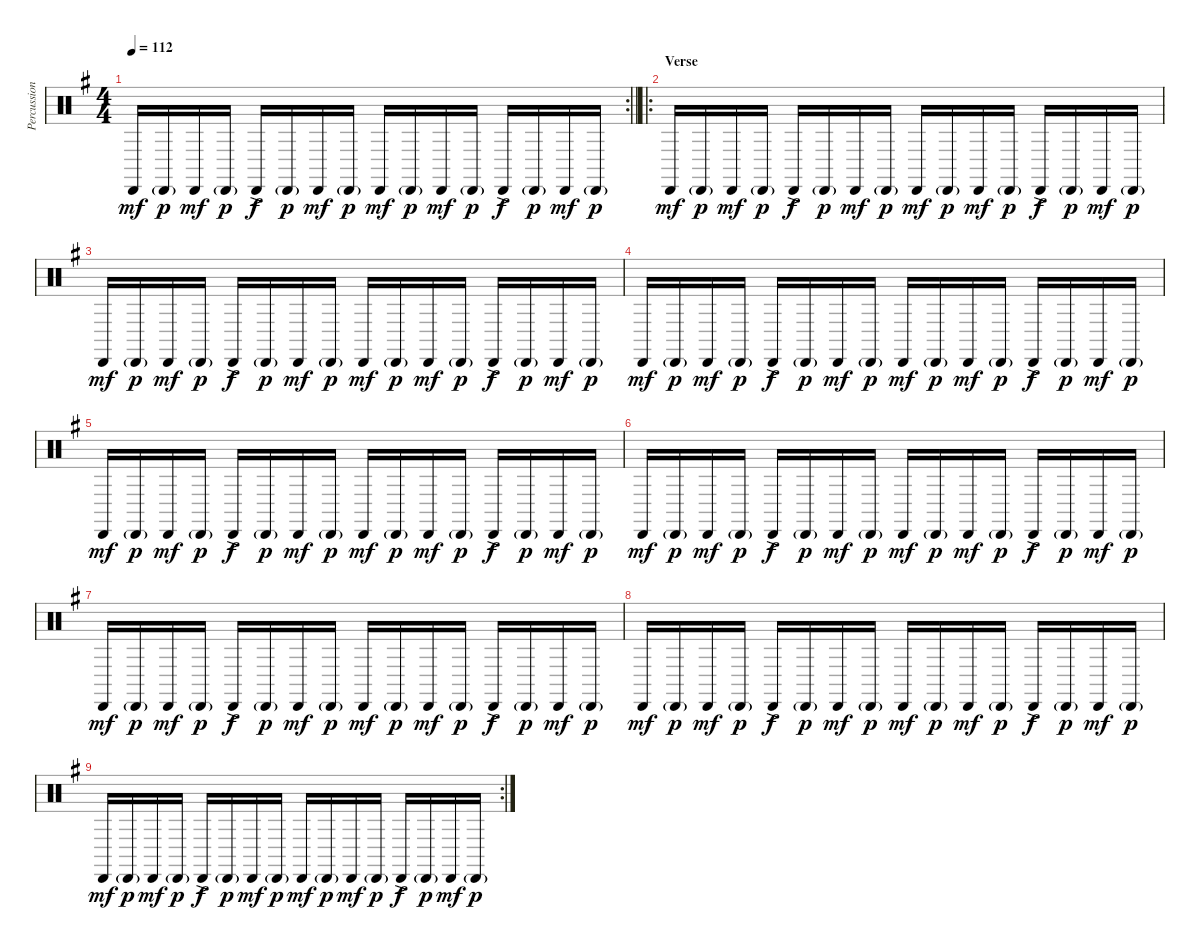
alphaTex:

\track ("Percussion" "Percussion") {instrument percussion}
\staff {score}
\articulation defaults
\rc 2
\ts (4 4)
\tempo 112
\clef neutral
\barLineRight lightlight
\ks g "Cabasa (hit)".16{dy mf} "Cabasa (hit)"{g}.16{dy p} "Cabasa (hit)".16{dy mf} "Cabasa (hit)"{g}.16{dy p} "Cabasa (hit)"{ac}.16{dy f} "Cabasa (hit)"{g}.16{dy p} "Cabasa (hit)".16{dy mf} "Cabasa (hit)"{g}.16{dy p} "Cabasa (hit)".16{dy mf} "Cabasa (hit)"{g}.16{dy p} "Cabasa (hit)".16{dy mf} "Cabasa (hit)"{g}.16{dy p} "Cabasa (hit)"{ac}.16{dy f} "Cabasa (hit)"{g}.16{dy p} "Cabasa (hit)".16{dy mf} "Cabasa (hit)"{g}.16{dy p}
|
\ro
\section ("" "Verse")
"Cabasa (hit)".16{dy mf} "Cabasa (hit)"{g}.16{dy p} "Cabasa (hit)".16{dy mf} "Cabasa (hit)"{g}.16{dy p} "Cabasa (hit)"{ac}.16{dy f} "Cabasa (hit)"{g}.16{dy p} "Cabasa (hit)".16{dy mf} "Cabasa (hit)"{g}.16{dy p} "Cabasa (hit)".16{dy mf} "Cabasa (hit)"{g}.16{dy p} "Cabasa (hit)".16{dy mf} "Cabasa (hit)"{g}.16{dy p} "Cabasa (hit)"{ac}.16{dy f} "Cabasa (hit)"{g}.16{dy p} "Cabasa (hit)".16{dy mf} "Cabasa (hit)"{g}.16{dy p} |
"Cabasa (hit)".16{dy mf} "Cabasa (hit)"{g}.16{dy p} "Cabasa (hit)".16{dy mf} "Cabasa (hit)"{g}.16{dy p} "Cabasa (hit)"{ac}.16{dy f} "Cabasa (hit)"{g}.16{dy p} "Cabasa (hit)".16{dy mf} "Cabasa (hit)"{g}.16{dy p} "Cabasa (hit)".16{dy mf} "Cabasa (hit)"{g}.16{dy p} "Cabasa (hit)".16{dy mf} "Cabasa (hit)"{g}.16{dy p} "Cabasa (hit)"{ac}.16{dy f} "Cabasa (hit)"{g}.16{dy p} "Cabasa (hit)".16{dy mf} "Cabasa (hit)"{g}.16{dy p} |
"Cabasa (hit)".16{dy mf} "Cabasa (hit)"{g}.16{dy p} "Cabasa (hit)".16{dy mf} "Cabasa (hit)"{g}.16{dy p} "Cabasa (hit)"{ac}.16{dy f} "Cabasa (hit)"{g}.16{dy p} "Cabasa (hit)".16{dy mf} "Cabasa (hit)"{g}.16{dy p} "Cabasa (hit)".16{dy mf} "Cabasa (hit)"{g}.16{dy p} "Cabasa (hit)".16{dy mf} "Cabasa (hit)"{g}.16{dy p} "Cabasa (hit)"{ac}.16{dy f} "Cabasa (hit)"{g}.16{dy p} "Cabasa (hit)".16{dy mf} "Cabasa (hit)"{g}.16{dy p} |
"Cabasa (hit)".16{dy mf} "Cabasa (hit)"{g}.16{dy p} "Cabasa (hit)".16{dy mf} "Cabasa (hit)"{g}.16{dy p} "Cabasa (hit)"{ac}.16{dy f} "Cabasa (hit)"{g}.16{dy p} "Cabasa (hit)".16{dy mf} "Cabasa (hit)"{g}.16{dy p} "Cabasa (hit)".16{dy mf} "Cabasa (hit)"{g}.16{dy p} "Cabasa (hit)".16{dy mf} "Cabasa (hit)"{g}.16{dy p} "Cabasa (hit)"{ac}.16{dy f} "Cabasa (hit)"{g}.16{dy p} "Cabasa (hit)".16{dy mf} "Cabasa (hit)"{g}.16{dy p} |
"Cabasa (hit)".16{dy mf} "Cabasa (hit)"{g}.16{dy p} "Cabasa (hit)".16{dy mf} "Cabasa (hit)"{g}.16{dy p} "Cabasa (hit)"{ac}.16{dy f} "Cabasa (hit)"{g}.16{dy p} "Cabasa (hit)".16{dy mf} "Cabasa (hit)"{g}.16{dy p} "Cabasa (hit)".16{dy mf} "Cabasa (hit)"{g}.16{dy p} "Cabasa (hit)".16{dy mf} "Cabasa (hit)"{g}.16{dy p} "Cabasa (hit)"{ac}.16{dy f} "Cabasa (hit)"{g}.16{dy p} "Cabasa (hit)".16{dy mf} "Cabasa (hit)"{g}.16{dy p} |
"Cabasa (hit)".16{dy mf} "Cabasa (hit)"{g}.16{dy p} "Cabasa (hit)".16{dy mf} "Cabasa (hit)"{g}.16{dy p} "Cabasa (hit)"{ac}.16{dy f} "Cabasa (hit)"{g}.16{dy p} "Cabasa (hit)".16{dy mf} "Cabasa (hit)"{g}.16{dy p} "Cabasa (hit)".16{dy mf} "Cabasa (hit)"{g}.16{dy p} "Cabasa (hit)".16{dy mf} "Cabasa (hit)"{g}.16{dy p} "Cabasa (hit)"{ac}.16{dy f} "Cabasa (hit)"{g}.16{dy p} "Cabasa (hit)".16{dy mf} "Cabasa (hit)"{g}.16{dy p} |
"Cabasa (hit)".16{dy mf} "Cabasa (hit)"{g}.16{dy p} "Cabasa (hit)".16{dy mf} "Cabasa (hit)"{g}.16{dy p} "Cabasa (hit)"{ac}.16{dy f} "Cabasa (hit)"{g}.16{dy p} "Cabasa (hit)".16{dy mf} "Cabasa (hit)"{g}.16{dy p} "Cabasa (hit)".16{dy mf} "Cabasa (hit)"{g}.16{dy p} "Cabasa (hit)".16{dy mf} "Cabasa (hit)"{g}.16{dy p} "Cabasa (hit)"{ac}.16{dy f} "Cabasa (hit)"{g}.16{dy p} "Cabasa (hit)".16{dy mf} "Cabasa (hit)"{g}.16{dy p} |
\rc 2 "Cabasa (hit)".16{dy mf} "Cabasa (hit)"{g}.16{dy p} "Cabasa (hit)".16{dy mf} "Cabasa (hit)"{g}.16{dy p} "Cabasa (hit)"{ac}.16{dy f} "Cabasa (hit)"{g}.16{dy p} "Cabasa (hit)".16{dy mf} "Cabasa (hit)"{g}.16{dy p} "Cabasa (hit)".16{dy mf} "Cabasa (hit)"{g}.16{dy p} "Cabasa (hit)".16{dy mf} "Cabasa (hit)"{g}.16{dy p} "Cabasa (hit)"{ac}.16{dy f} "Cabasa (hit)"{g}.16{dy p} "Cabasa (hit)".16{dy mf} "Cabasa (hit)"{g}.16{dy p}
